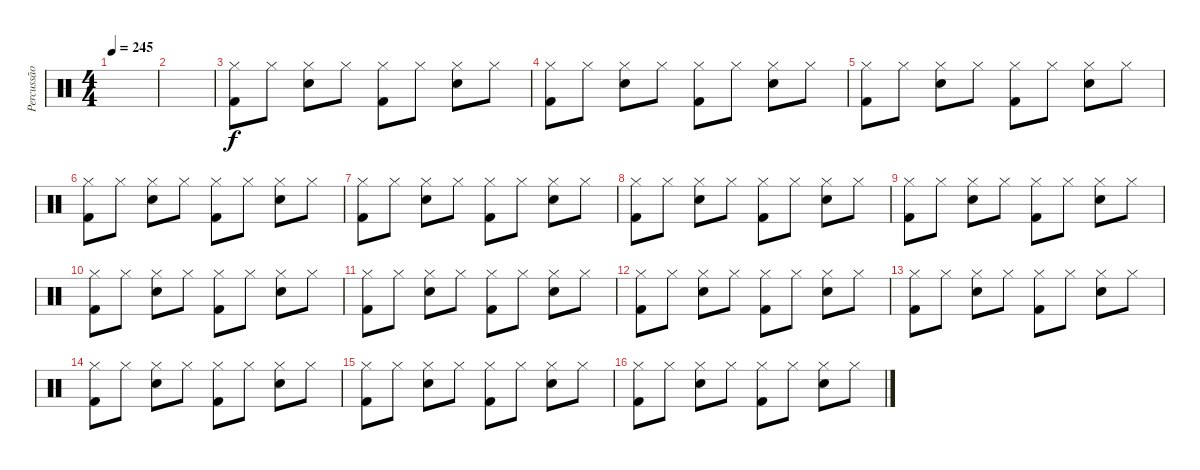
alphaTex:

\track ("Percussão" "Percussão") {instrument percussion}
\staff {score}
\articulation defaults
\ts (4 4)
\tempo 245
\clef neutral
\ks c
|
|
("Hi-Hat (closed)" "Kick (hit) 2").8 "Hi-Hat (closed)".8 ("Hi-Hat (closed)" "Snare (hit) 2").8 "Hi-Hat (closed)".8 ("Hi-Hat (closed)" "Kick (hit) 2").8 "Hi-Hat (closed)".8 ("Hi-Hat (closed)" "Snare (hit) 2").8 "Hi-Hat (closed)".8 |
("Hi-Hat (closed)" "Kick (hit) 2").8 "Hi-Hat (closed)".8 ("Hi-Hat (closed)" "Snare (hit) 2").8 "Hi-Hat (closed)".8 ("Hi-Hat (closed)" "Kick (hit) 2").8 "Hi-Hat (closed)".8 ("Hi-Hat (closed)" "Snare (hit) 2").8 "Hi-Hat (closed)".8 |
("Hi-Hat (closed)" "Kick (hit) 2").8 "Hi-Hat (closed)".8 ("Hi-Hat (closed)" "Snare (hit) 2").8 "Hi-Hat (closed)".8 ("Hi-Hat (closed)" "Kick (hit) 2").8 "Hi-Hat (closed)".8 ("Hi-Hat (closed)" "Snare (hit) 2").8 "Hi-Hat (closed)".8 |
("Hi-Hat (closed)" "Kick (hit) 2").8 "Hi-Hat (closed)".8 ("Hi-Hat (closed)" "Snare (hit) 2").8 "Hi-Hat (closed)".8 ("Hi-Hat (closed)" "Kick (hit) 2").8 "Hi-Hat (closed)".8 ("Hi-Hat (closed)" "Snare (hit) 2").8 "Hi-Hat (closed)".8 |
("Hi-Hat (closed)" "Kick (hit) 2").8 "Hi-Hat (closed)".8 ("Hi-Hat (closed)" "Snare (hit) 2").8 "Hi-Hat (closed)".8 ("Hi-Hat (closed)" "Kick (hit) 2").8 "Hi-Hat (closed)".8 ("Hi-Hat (closed)" "Snare (hit) 2").8 "Hi-Hat (closed)".8 |
("Hi-Hat (closed)" "Kick (hit) 2").8 "Hi-Hat (closed)".8 ("Hi-Hat (closed)" "Snare (hit) 2").8 "Hi-Hat (closed)".8 ("Hi-Hat (closed)" "Kick (hit) 2").8 "Hi-Hat (closed)".8 ("Hi-Hat (closed)" "Snare (hit) 2").8 "Hi-Hat (closed)".8 |
("Hi-Hat (closed)" "Kick (hit) 2").8 "Hi-Hat (closed)".8 ("Hi-Hat (closed)" "Snare (hit) 2").8 "Hi-Hat (closed)".8 ("Hi-Hat (closed)" "Kick (hit) 2").8 "Hi-Hat (closed)".8 ("Hi-Hat (closed)" "Snare (hit) 2").8 "Hi-Hat (closed)".8 |
("Hi-Hat (closed)" "Kick (hit) 2").8 "Hi-Hat (closed)".8 ("Hi-Hat (closed)" "Snare (hit) 2").8 "Hi-Hat (closed)".8 ("Hi-Hat (closed)" "Kick (hit) 2").8 "Hi-Hat (closed)".8 ("Hi-Hat (closed)" "Snare (hit) 2").8 "Hi-Hat (closed)".8 |
("Hi-Hat (closed)" "Kick (hit) 2").8 "Hi-Hat (closed)".8 ("Hi-Hat (closed)" "Snare (hit) 2").8 "Hi-Hat (closed)".8 ("Hi-Hat (closed)" "Kick (hit) 2").8 "Hi-Hat (closed)".8 ("Hi-Hat (closed)" "Snare (hit) 2").8 "Hi-Hat (closed)".8 |
("Hi-Hat (closed)" "Kick (hit) 2").8 "Hi-Hat (closed)".8 ("Hi-Hat (closed)" "Snare (hit) 2").8 "Hi-Hat (closed)".8 ("Hi-Hat (closed)" "Kick (hit) 2").8 "Hi-Hat (closed)".8 ("Hi-Hat (closed)" "Snare (hit) 2").8 "Hi-Hat (closed)".8 |
("Hi-Hat (closed)" "Kick (hit) 2").8 "Hi-Hat (closed)".8 ("Hi-Hat (closed)" "Snare (hit) 2").8 "Hi-Hat (closed)".8 ("Hi-Hat (closed)" "Kick (hit) 2").8 "Hi-Hat (closed)".8 ("Hi-Hat (closed)" "Snare (hit) 2").8 "Hi-Hat (closed)".8 |
("Hi-Hat (closed)" "Kick (hit) 2").8 "Hi-Hat (closed)".8 ("Hi-Hat (closed)" "Snare (hit) 2").8 "Hi-Hat (closed)".8 ("Hi-Hat (closed)" "Kick (hit) 2").8 "Hi-Hat (closed)".8 ("Hi-Hat (closed)" "Snare (hit) 2").8 "Hi-Hat (closed)".8 |
("Hi-Hat (closed)" "Kick (hit) 2").8 "Hi-Hat (closed)".8 ("Hi-Hat (closed)" "Snare (hit) 2").8 "Hi-Hat (closed)".8 ("Hi-Hat (closed)" "Kick (hit) 2").8 "Hi-Hat (closed)".8 ("Hi-Hat (closed)" "Snare (hit) 2").8 "Hi-Hat (closed)".8 |
("Hi-Hat (closed)" "Kick (hit) 2").8 "Hi-Hat (closed)".8 ("Hi-Hat (closed)" "Snare (hit) 2").8 "Hi-Hat (closed)".8 ("Hi-Hat (closed)" "Kick (hit) 2").8 "Hi-Hat (closed)".8 ("Hi-Hat (closed)" "Snare (hit) 2").8 "Hi-Hat (closed)".8
